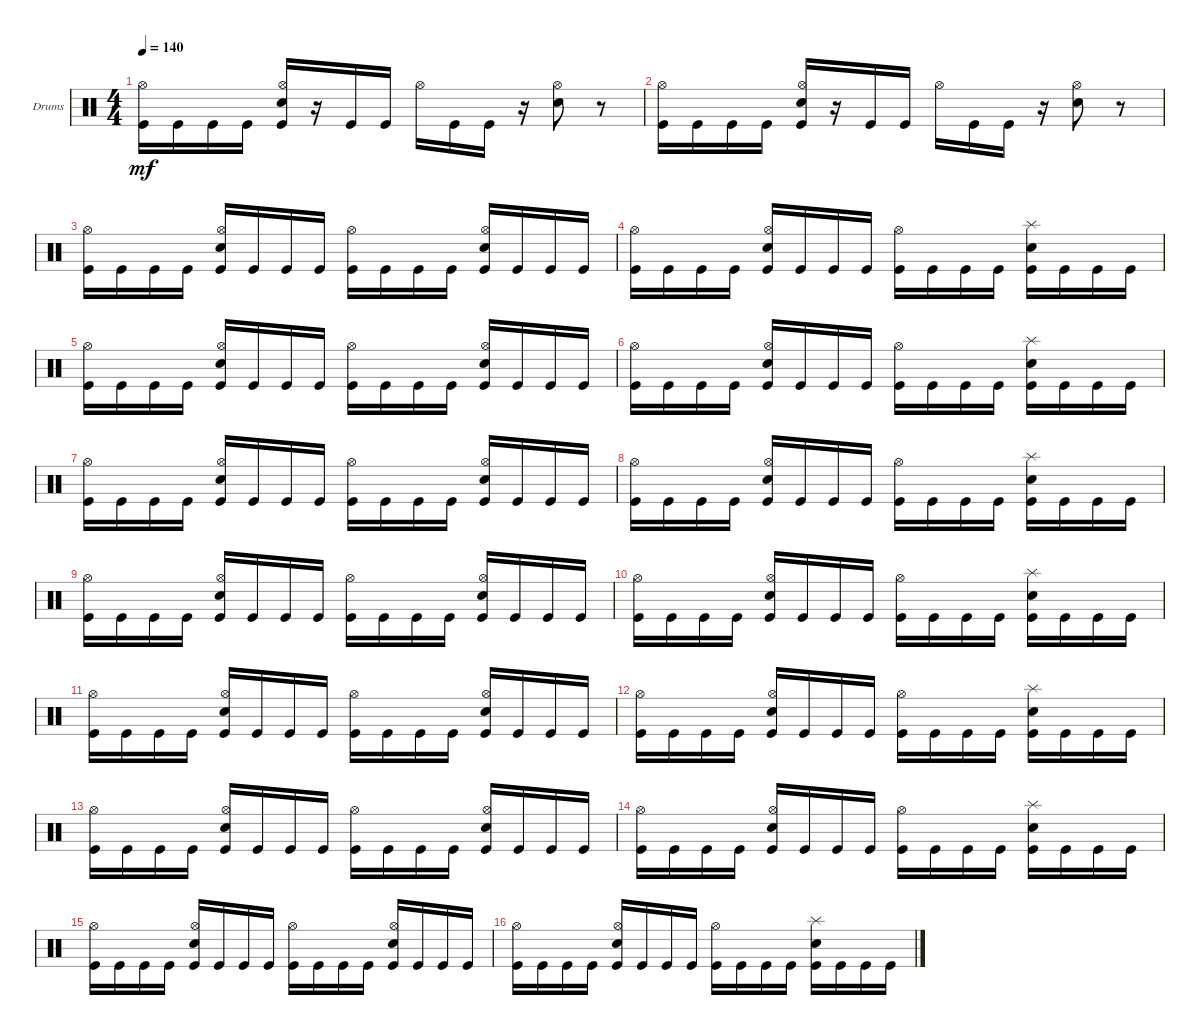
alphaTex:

\defaultSystemsLayout 4
\bracketExtendMode groupsimilarinstruments
\firstSystemTrackNameOrientation horizontal
\otherSystemsTrackNameOrientation horizontal
\track ("Drumkit" "Drums") {instrument percussion}
\staff {score}
\articulation defaults
\ts (4 4)
\tempo 140
\clef neutral
\scale
0.333333
\ks c
("Kick (hit)" "Hi-Hat (open)").16{dy mf} "Kick (hit)".16 "Kick (hit)".16 "Kick (hit)".16 ("Kick (hit)" "Snare (hit) 2" "Hi-Hat (open)").16 r.16 "Kick (hit)".16 "Kick (hit)".16 "Hi-Hat (open)".16 "Kick (hit)".16 "Kick (hit)".16 r.16 ("Snare (hit) 2" "Hi-Hat (open)").8 r.8 |
\scale
0.333333 ("Kick (hit)" "Hi-Hat (open)").16 "Kick (hit)".16 "Kick (hit)".16 "Kick (hit)".16 ("Kick (hit)" "Snare (hit) 2" "Hi-Hat (open)").16 r.16 "Kick (hit)".16 "Kick (hit)".16 "Hi-Hat (open)".16 "Kick (hit)".16 "Kick (hit)".16 r.16 ("Snare (hit) 2" "Hi-Hat (open)").8 r.8 |
\scale
0.333333 ("Kick (hit)" "Hi-Hat (open)").16 "Kick (hit)".16 "Kick (hit)".16 "Kick (hit)".16 ("Kick (hit)" "Snare (hit) 2" "Hi-Hat (open)").16 "Kick (hit)".16 "Kick (hit)".16 "Kick (hit)".16 ("Kick (hit)" "Hi-Hat (open)").16 "Kick (hit)".16 "Kick (hit)".16 "Kick (hit)".16 ("Kick (hit)" "Snare (hit) 2" "Hi-Hat (open)").16 "Kick (hit)".16 "Kick (hit)".16 "Kick (hit)".16 |
\scale
0.333333 ("Kick (hit)" "Hi-Hat (open)").16 "Kick (hit)".16 "Kick (hit)".16 "Kick (hit)".16 ("Kick (hit)" "Snare (hit) 2" "Hi-Hat (open)").16 "Kick (hit)".16 "Kick (hit)".16 "Kick (hit)".16 ("Kick (hit)" "Hi-Hat (open)").16 "Kick (hit)".16 "Kick (hit)".16 "Kick (hit)".16 ("Kick (hit)" "Snare (hit) 2" "Splash (hit)").16 "Kick (hit)".16 "Kick (hit)".16 "Kick (hit)".16 |
\scale
0.333333 ("Kick (hit)" "Hi-Hat (open)").16 "Kick (hit)".16 "Kick (hit)".16 "Kick (hit)".16 ("Kick (hit)" "Snare (hit) 2" "Hi-Hat (open)").16 "Kick (hit)".16 "Kick (hit)".16 "Kick (hit)".16 ("Kick (hit)" "Hi-Hat (open)").16 "Kick (hit)".16 "Kick (hit)".16 "Kick (hit)".16 ("Kick (hit)" "Snare (hit) 2" "Hi-Hat (open)").16 "Kick (hit)".16 "Kick (hit)".16 "Kick (hit)".16 |
\scale
0.333333 ("Kick (hit)" "Hi-Hat (open)").16 "Kick (hit)".16 "Kick (hit)".16 "Kick (hit)".16 ("Kick (hit)" "Snare (hit) 2" "Hi-Hat (open)").16 "Kick (hit)".16 "Kick (hit)".16 "Kick (hit)".16 ("Kick (hit)" "Hi-Hat (open)").16 "Kick (hit)".16 "Kick (hit)".16 "Kick (hit)".16 ("Kick (hit)" "Snare (hit) 2" "Splash (hit)").16 "Kick (hit)".16 "Kick (hit)".16 "Kick (hit)".16 |
\scale
0.333333 ("Kick (hit)" "Hi-Hat (open)").16 "Kick (hit)".16 "Kick (hit)".16 "Kick (hit)".16 ("Kick (hit)" "Snare (hit) 2" "Hi-Hat (open)").16 "Kick (hit)".16 "Kick (hit)".16 "Kick (hit)".16 ("Kick (hit)" "Hi-Hat (open)").16 "Kick (hit)".16 "Kick (hit)".16 "Kick (hit)".16 ("Kick (hit)" "Snare (hit) 2" "Hi-Hat (open)").16 "Kick (hit)".16 "Kick (hit)".16 "Kick (hit)".16 |
\scale
0.333333 ("Kick (hit)" "Hi-Hat (open)").16 "Kick (hit)".16 "Kick (hit)".16 "Kick (hit)".16 ("Kick (hit)" "Snare (hit) 2" "Hi-Hat (open)").16 "Kick (hit)".16 "Kick (hit)".16 "Kick (hit)".16 ("Kick (hit)" "Hi-Hat (open)").16 "Kick (hit)".16 "Kick (hit)".16 "Kick (hit)".16 ("Kick (hit)" "Snare (hit) 2" "Splash (hit)").16 "Kick (hit)".16 "Kick (hit)".16 "Kick (hit)".16 |
\scale
0.333333 ("Kick (hit)" "Hi-Hat (open)").16 "Kick (hit)".16 "Kick (hit)".16 "Kick (hit)".16 ("Kick (hit)" "Snare (hit) 2" "Hi-Hat (open)").16 "Kick (hit)".16 "Kick (hit)".16 "Kick (hit)".16 ("Kick (hit)" "Hi-Hat (open)").16 "Kick (hit)".16 "Kick (hit)".16 "Kick (hit)".16 ("Kick (hit)" "Snare (hit) 2" "Hi-Hat (open)").16 "Kick (hit)".16 "Kick (hit)".16 "Kick (hit)".16 |
\scale
0.333333 ("Kick (hit)" "Hi-Hat (open)").16 "Kick (hit)".16 "Kick (hit)".16 "Kick (hit)".16 ("Kick (hit)" "Snare (hit) 2" "Hi-Hat (open)").16 "Kick (hit)".16 "Kick (hit)".16 "Kick (hit)".16 ("Kick (hit)" "Hi-Hat (open)").16 "Kick (hit)".16 "Kick (hit)".16 "Kick (hit)".16 ("Kick (hit)" "Snare (hit) 2" "Splash (hit)").16 "Kick (hit)".16 "Kick (hit)".16 "Kick (hit)".16 |
\scale
0.333333 ("Kick (hit)" "Hi-Hat (open)").16 "Kick (hit)".16 "Kick (hit)".16 "Kick (hit)".16 ("Kick (hit)" "Snare (hit) 2" "Hi-Hat (open)").16 "Kick (hit)".16 "Kick (hit)".16 "Kick (hit)".16 ("Kick (hit)" "Hi-Hat (open)").16 "Kick (hit)".16 "Kick (hit)".16 "Kick (hit)".16 ("Kick (hit)" "Snare (hit) 2" "Hi-Hat (open)").16 "Kick (hit)".16 "Kick (hit)".16 "Kick (hit)".16 |
\scale
0.333333 ("Kick (hit)" "Hi-Hat (open)").16 "Kick (hit)".16 "Kick (hit)".16 "Kick (hit)".16 ("Kick (hit)" "Snare (hit) 2" "Hi-Hat (open)").16 "Kick (hit)".16 "Kick (hit)".16 "Kick (hit)".16 ("Kick (hit)" "Hi-Hat (open)").16 "Kick (hit)".16 "Kick (hit)".16 "Kick (hit)".16 ("Kick (hit)" "Snare (hit) 2" "Splash (hit)").16 "Kick (hit)".16 "Kick (hit)".16 "Kick (hit)".16 |
\scale
0.333333 ("Kick (hit)" "Hi-Hat (open)").16 "Kick (hit)".16 "Kick (hit)".16 "Kick (hit)".16 ("Kick (hit)" "Snare (hit) 2" "Hi-Hat (open)").16 "Kick (hit)".16 "Kick (hit)".16 "Kick (hit)".16 ("Kick (hit)" "Hi-Hat (open)").16 "Kick (hit)".16 "Kick (hit)".16 "Kick (hit)".16 ("Kick (hit)" "Snare (hit) 2" "Hi-Hat (open)").16 "Kick (hit)".16 "Kick (hit)".16 "Kick (hit)".16 |
\scale
0.333333 ("Kick (hit)" "Hi-Hat (open)").16 "Kick (hit)".16 "Kick (hit)".16 "Kick (hit)".16 ("Kick (hit)" "Snare (hit) 2" "Hi-Hat (open)").16 "Kick (hit)".16 "Kick (hit)".16 "Kick (hit)".16 ("Kick (hit)" "Hi-Hat (open)").16 "Kick (hit)".16 "Kick (hit)".16 "Kick (hit)".16 ("Kick (hit)" "Snare (hit) 2" "Splash (hit)").16 "Kick (hit)".16 "Kick (hit)".16 "Kick (hit)".16 |
\scale
0.333333 ("Kick (hit)" "Hi-Hat (open)").16 "Kick (hit)".16 "Kick (hit)".16 "Kick (hit)".16 ("Kick (hit)" "Snare (hit) 2" "Hi-Hat (open)").16 "Kick (hit)".16 "Kick (hit)".16 "Kick (hit)".16 ("Kick (hit)" "Hi-Hat (open)").16 "Kick (hit)".16 "Kick (hit)".16 "Kick (hit)".16 ("Kick (hit)" "Snare (hit) 2" "Hi-Hat (open)").16 "Kick (hit)".16 "Kick (hit)".16 "Kick (hit)".16 |
\scale
0.333333 ("Kick (hit)" "Hi-Hat (open)").16 "Kick (hit)".16 "Kick (hit)".16 "Kick (hit)".16 ("Kick (hit)" "Snare (hit) 2" "Hi-Hat (open)").16 "Kick (hit)".16 "Kick (hit)".16 "Kick (hit)".16 ("Kick (hit)" "Hi-Hat (open)").16 "Kick (hit)".16 "Kick (hit)".16 "Kick (hit)".16 ("Kick (hit)" "Snare (hit) 2" "Splash (hit)").16 "Kick (hit)".16 "Kick (hit)".16 "Kick (hit)".16
